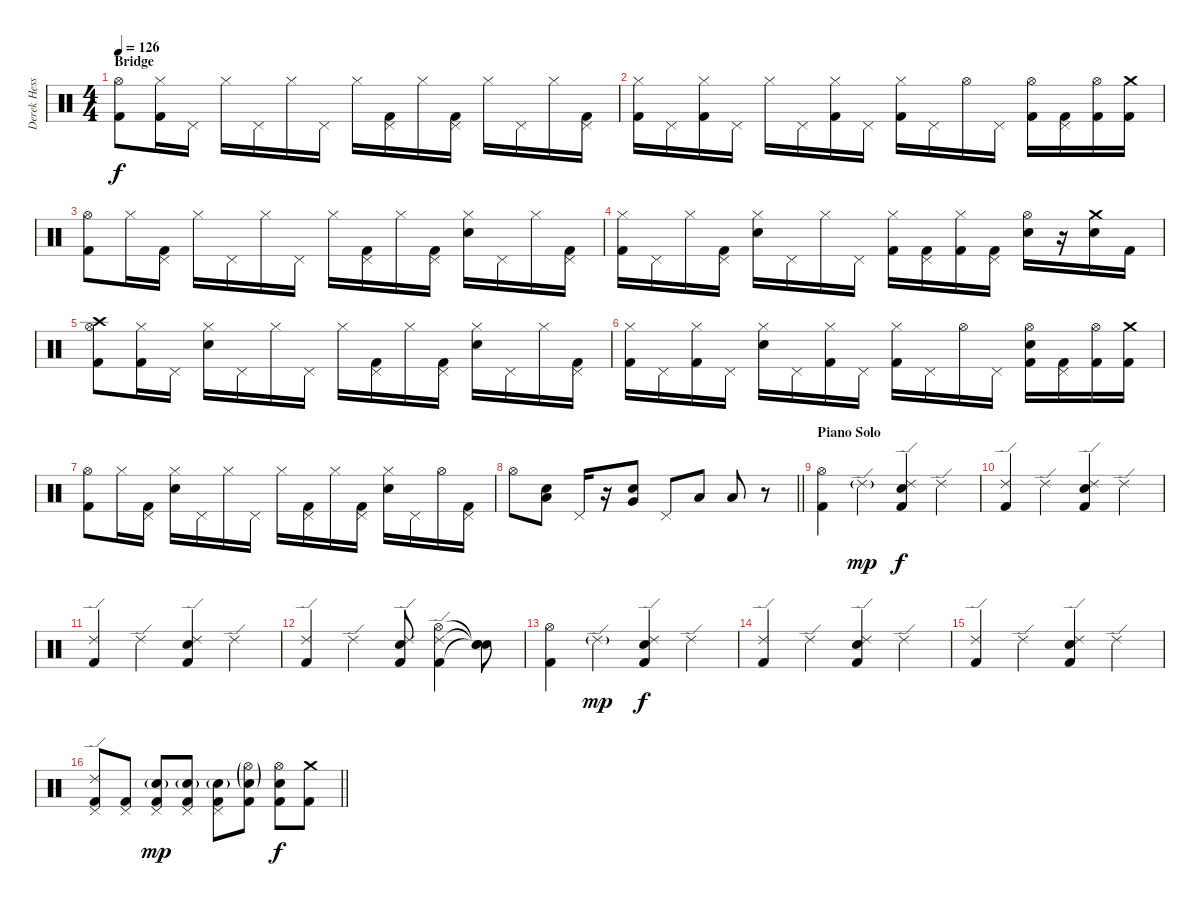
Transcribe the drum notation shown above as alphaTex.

\track ("Derek Hess - Drums and Percussion" "Derek Hess") {instrument percussion}
\staff {score}
\articulation defaults
\ts (4 4)
\section ("" "Bridge")
\tempo 126
\clef neutral
\ks c
("Hi-Hat (open)" "Kick (hit) 2").8{dy f} ("Hi-Hat (closed)" "Kick (hit) 2").16 "Pedal Hi-Hat (hit)".16 "Hi-Hat (closed)".16 "Pedal Hi-Hat (hit)".16 "Hi-Hat (closed)".16 "Pedal Hi-Hat (hit)".16 "Hi-Hat (closed)".16 ("Pedal Hi-Hat (hit)" "Kick (hit) 2").16 "Hi-Hat (closed)".16 ("Pedal Hi-Hat (hit)" "Kick (hit) 2").16 "Hi-Hat (closed)".16 "Pedal Hi-Hat (hit)".16 "Hi-Hat (closed)".16 ("Pedal Hi-Hat (hit)" "Kick (hit) 2").16 |
("Hi-Hat (closed)" "Kick (hit) 2").16 "Pedal Hi-Hat (hit)".16 ("Hi-Hat (closed)" "Kick (hit) 2").16 "Pedal Hi-Hat (hit)".16 "Hi-Hat (closed)".16 "Pedal Hi-Hat (hit)".16 ("Hi-Hat (closed)" "Kick (hit) 2").16 "Pedal Hi-Hat (hit)".16 ("Hi-Hat (closed)" "Kick (hit) 2").16 "Pedal Hi-Hat (hit)".16 "Hi-Hat (open)".16 "Pedal Hi-Hat (hit)".16 ("Hi-Hat (open)" "Kick (hit) 2").16 ("Pedal Hi-Hat (hit)" "Kick (hit) 2").16 ("Hi-Hat (open)" "Kick (hit) 2").16 ("Crash medium (hit)" "Kick (hit) 2").16 |
("Hi-Hat (open)" "Kick (hit) 2").8 "Hi-Hat (closed)".16 ("Pedal Hi-Hat (hit)" "Kick (hit) 2").16 "Hi-Hat (closed)".16 "Pedal Hi-Hat (hit)".16 "Hi-Hat (closed)".16 "Pedal Hi-Hat (hit)".16 "Hi-Hat (closed)".16 ("Pedal Hi-Hat (hit)" "Kick (hit) 2").16 "Hi-Hat (closed)".16 ("Pedal Hi-Hat (hit)" "Kick (hit) 2").16 ("Snare (hit) 2" "Hi-Hat (closed)").16 "Pedal Hi-Hat (hit)".16 "Hi-Hat (closed)".16 ("Pedal Hi-Hat (hit)" "Kick (hit) 2").16 |
("Hi-Hat (closed)" "Kick (hit) 2").16 "Pedal Hi-Hat (hit)".16 "Hi-Hat (closed)".16 ("Pedal Hi-Hat (hit)" "Kick (hit) 2").16 ("Snare (hit) 2" "Hi-Hat (closed)").16 "Pedal Hi-Hat (hit)".16 "Hi-Hat (closed)".16 "Pedal Hi-Hat (hit)".16 ("Hi-Hat (closed)" "Kick (hit) 2").16 ("Pedal Hi-Hat (hit)" "Kick (hit) 2").16 ("Hi-Hat (closed)" "Kick (hit) 2").16 ("Pedal Hi-Hat (hit)" "Kick (hit) 2").16 ("Snare (hit) 2" "Hi-Hat (open)").16 r.16 ("Crash medium (hit)" "Snare (hit) 2").16 "Kick (hit) 2".16 |
("Crash high (hit)" "Hi-Hat (open)" "Kick (hit) 2").8 ("Hi-Hat (closed)" "Kick (hit) 2").16 "Pedal Hi-Hat (hit)".16 ("Snare (hit) 2" "Hi-Hat (closed)").16 "Pedal Hi-Hat (hit)".16 "Hi-Hat (closed)".16 "Pedal Hi-Hat (hit)".16 "Hi-Hat (closed)".16 ("Pedal Hi-Hat (hit)" "Kick (hit) 2").16 "Hi-Hat (closed)".16 ("Pedal Hi-Hat (hit)" "Kick (hit) 2").16 ("Snare (hit) 2" "Hi-Hat (closed)").16 "Pedal Hi-Hat (hit)".16 "Hi-Hat (closed)".16 ("Pedal Hi-Hat (hit)" "Kick (hit) 2").16 |
("Hi-Hat (closed)" "Kick (hit) 2").16 "Pedal Hi-Hat (hit)".16 ("Hi-Hat (closed)" "Kick (hit) 2").16 "Pedal Hi-Hat (hit)".16 ("Snare (hit) 2" "Hi-Hat (closed)").16 "Pedal Hi-Hat (hit)".16 ("Hi-Hat (closed)" "Kick (hit) 2").16 "Pedal Hi-Hat (hit)".16 ("Hi-Hat (closed)" "Kick (hit) 2").16 "Pedal Hi-Hat (hit)".16 "Hi-Hat (open)".16 "Pedal Hi-Hat (hit)".16 ("Snare (hit) 2" "Hi-Hat (open)" "Kick (hit) 2").16 ("Pedal Hi-Hat (hit)" "Kick (hit) 2").16 ("Hi-Hat (open)" "Kick (hit) 2").16 ("Crash medium (hit)" "Kick (hit) 2").16 |
("Hi-Hat (open)" "Kick (hit) 2").8 "Hi-Hat (closed)".16 ("Pedal Hi-Hat (hit)" "Kick (hit) 2").16 ("Snare (hit) 2" "Hi-Hat (closed)").16 "Pedal Hi-Hat (hit)".16 "Hi-Hat (closed)".16 "Pedal Hi-Hat (hit)".16 "Hi-Hat (closed)".16 ("Pedal Hi-Hat (hit)" "Kick (hit) 2").16 "Hi-Hat (closed)".16 ("Pedal Hi-Hat (hit)" "Kick (hit) 2").16 ("Snare (hit) 2" "Hi-Hat (closed)").16 "Pedal Hi-Hat (hit)".16 "Hi-Hat (open)".16 ("Pedal Hi-Hat (hit)" "Kick (hit) 2").16 |
\barLineRight lightlight "Hi-Hat (open)".8
("Snare (hit) 2" "Low Tom (hit)").8 "Pedal Hi-Hat (hit)".16 r.16 ("Snare (hit) 2" "Very Low Tom (hit)").8 "Pedal Hi-Hat (hit)".8 "Low Floor Tom (hit)".8 "Low Floor Tom (hit)".8 r.8 |
\section ("" "Piano Solo")
("Hi-Hat (open)" "Kick (hit) 2").4 "Ride (edge) 2"{g}.4{dy mp} ("Ride (edge) 2" "Snare (hit) 2" "Kick (hit) 2").4{dy f} "Ride (edge) 2".4 |
("Ride (edge) 2" "Kick (hit) 2").4 "Ride (edge) 2".4 ("Ride (edge) 2" "Snare (hit) 2" "Kick (hit) 2").4 "Ride (edge) 2".4 |
("Ride (edge) 2" "Kick (hit) 2").4 "Ride (edge) 2".4 ("Ride (edge) 2" "Snare (hit) 2" "Kick (hit) 2").4 "Ride (edge) 2".4 |
("Ride (edge) 2" "Kick (hit) 2").4 "Ride (edge) 2".4 ("Ride (edge) 2" "Snare (hit) 2" "Kick (hit) 2").8 ("Ride (edge) 2" "Hi-Hat (open)" "Kick (hit) 2").4 ("Snare (hit)"{t} "Snare (hit)"{t} "Snare (hit)"{t}).8 |
("Hi-Hat (open)" "Kick (hit) 2").4 "Ride (edge) 2"{g}.4{dy mp} ("Ride (edge) 2" "Snare (hit) 2" "Kick (hit) 2").4{dy f} "Ride (edge) 2".4 |
("Ride (edge) 2" "Kick (hit) 2").4 "Ride (edge) 2".4 ("Ride (edge) 2" "Snare (hit) 2" "Kick (hit) 2").4 "Ride (edge) 2".4 |
("Ride (edge) 2" "Kick (hit) 2").4 "Ride (edge) 2".4 ("Ride (edge) 2" "Snare (hit) 2" "Kick (hit) 2").4 "Ride (edge) 2".4 |
\barLineRight lightlight
("Ride (edge) 2" "Pedal Hi-Hat (hit)" "Kick (hit) 2").8 ("Pedal Hi-Hat (hit)" "Kick (hit) 2").8 ("Pedal Hi-Hat (hit)" "Snare (hit) 2"{g} "Kick (hit) 2").8{dy mp} ("Pedal Hi-Hat (hit)" "Snare (hit) 2"{g} "Kick (hit) 2").8 ("Pedal Hi-Hat (hit)" "Snare (hit) 2"{g} "Kick (hit) 2").8 ("Hi-Hat (open)"{g} "Snare (hit) 2"{g} "Kick (hit) 2").8 ("Hi-Hat (open)" "Snare (hit) 2" "Kick (hit) 2").8{dy f} ("Crash medium (hit)" "Kick (hit) 2").8
